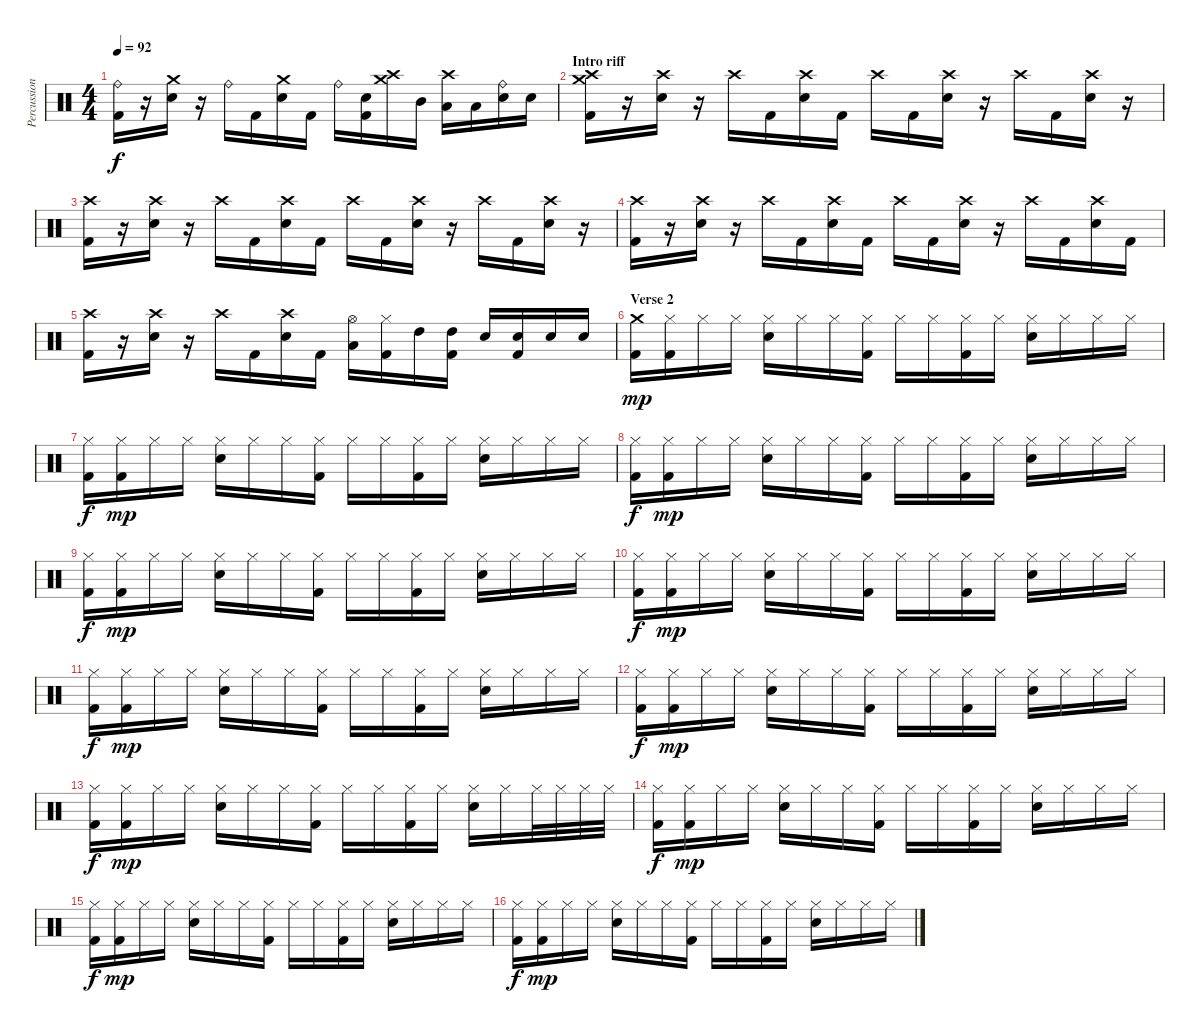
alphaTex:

\track ("Percussion" "Percussion") {instrument percussion}
\staff {score}
\articulation defaults
\ts (4 4)
\tempo 92
\clef neutral
\ks c
("Ride (bell)" "Kick (hit) 2").16{dy f} r.16 ("Crash medium (hit)" "Snare (hit) 2").16 r.16 "Ride (bell)".16 "Kick (hit) 2".16 ("Crash medium (hit)" "Snare (hit) 2").16 "Kick (hit) 2".16 "Ride (bell)".16 ("Snare (hit) 2" "Kick (hit) 2").16 ("Crash medium (hit)" "Crash high (hit)").16 "Mid Tom (hit)".16 ("Crash high (hit)" "Low Tom (hit)").16 "Low Tom (hit)".16 ("Ride (bell)" "Snare (hit) 2").16 "Snare (hit) 2".16 |
\section ("" "Intro riff")
("Crash high (hit)" "Crash medium (hit)" "Kick (hit) 2").16 r.16 ("Crash high (hit)" "Snare (hit) 2").16 r.16 "Crash high (hit)".16 "Kick (hit) 2".16 ("Crash high (hit)" "Snare (hit) 2").16 "Kick (hit) 2".16 "Crash high (hit)".16 "Kick (hit) 2".16 ("Crash high (hit)" "Snare (hit) 2").16 r.16 "Crash high (hit)".16 "Kick (hit) 2".16 ("Crash high (hit)" "Snare (hit) 2").16 r.16 |
("Crash high (hit)" "Kick (hit) 2").16 r.16 ("Crash high (hit)" "Snare (hit) 2").16 r.16 "Crash high (hit)".16 "Kick (hit) 2".16 ("Crash high (hit)" "Snare (hit) 2").16 "Kick (hit) 2".16 "Crash high (hit)".16 "Kick (hit) 2".16 ("Crash high (hit)" "Snare (hit) 2").16 r.16 "Crash high (hit)".16 "Kick (hit) 2".16 ("Crash high (hit)" "Snare (hit) 2").16 r.16 |
("Crash high (hit)" "Kick (hit) 2").16 r.16 ("Crash high (hit)" "Snare (hit) 2").16 r.16 "Crash high (hit)".16 "Kick (hit) 2".16 ("Crash high (hit)" "Snare (hit) 2").16 "Kick (hit) 2".16 "Crash high (hit)".16 "Kick (hit) 2".16 ("Crash high (hit)" "Snare (hit) 2").16 r.16 "Crash high (hit)".16 "Kick (hit) 2".16 ("Crash high (hit)" "Snare (hit) 2").16 "Kick (hit) 2".16 |
("Crash high (hit)" "Kick (hit) 2").16 r.16 ("Crash high (hit)" "Snare (hit) 2").16 r.16 "Crash high (hit)".16 "Kick (hit) 2".16 ("Crash high (hit)" "Snare (hit) 2").16 "Kick (hit) 2".16 ("Hi-Hat (open)" "Low Tom (hit)").16 ("Hi-Hat (closed)" "Kick (hit) 2").16 "High Tom (hit)".16 ("High Tom (hit)" "Kick (hit) 2").16 "Snare (hit) 2".16 ("Snare (hit) 2" "Kick (hit) 2").16 "Snare (hit) 2".16 "Snare (hit) 2".16 |
\section ("" "Verse 2")
("Crash medium (hit)" "Kick (hit) 2").16{dy mp} ("Hi-Hat (closed)" "Kick (hit) 2").16 "Hi-Hat (closed)".16 "Hi-Hat (closed)".16 ("Hi-Hat (closed)" "Snare (hit) 2").16 "Hi-Hat (closed)".16 "Hi-Hat (closed)".16 ("Hi-Hat (closed)" "Kick (hit) 2").16 "Hi-Hat (closed)".16 "Hi-Hat (closed)".16 ("Hi-Hat (closed)" "Kick (hit) 2").16 "Hi-Hat (closed)".16 ("Hi-Hat (closed)" "Snare (hit) 2").16 "Hi-Hat (closed)".16 "Hi-Hat (closed)".16 "Hi-Hat (closed)".16 |
("Hi-Hat (closed)" "Kick (hit) 2").16{dy f} ("Hi-Hat (closed)" "Kick (hit) 2").16{dy mp} "Hi-Hat (closed)".16 "Hi-Hat (closed)".16 ("Hi-Hat (closed)" "Snare (hit) 2").16 "Hi-Hat (closed)".16 "Hi-Hat (closed)".16 ("Hi-Hat (closed)" "Kick (hit) 2").16 "Hi-Hat (closed)".16 "Hi-Hat (closed)".16 ("Hi-Hat (closed)" "Kick (hit) 2").16 "Hi-Hat (closed)".16 ("Hi-Hat (closed)" "Snare (hit) 2").16 "Hi-Hat (closed)".16 "Hi-Hat (closed)".16 "Hi-Hat (closed)".16 |
("Hi-Hat (closed)" "Kick (hit) 2").16{dy f} ("Hi-Hat (closed)" "Kick (hit) 2").16{dy mp} "Hi-Hat (closed)".16 "Hi-Hat (closed)".16 ("Hi-Hat (closed)" "Snare (hit) 2").16 "Hi-Hat (closed)".16 "Hi-Hat (closed)".16 ("Hi-Hat (closed)" "Kick (hit) 2").16 "Hi-Hat (closed)".16 "Hi-Hat (closed)".16 ("Hi-Hat (closed)" "Kick (hit) 2").16 "Hi-Hat (closed)".16 ("Hi-Hat (closed)" "Snare (hit) 2").16 "Hi-Hat (closed)".16 "Hi-Hat (closed)".16 "Hi-Hat (closed)".16 |
("Hi-Hat (closed)" "Kick (hit) 2").16{dy f} ("Hi-Hat (closed)" "Kick (hit) 2").16{dy mp} "Hi-Hat (closed)".16 "Hi-Hat (closed)".16 ("Hi-Hat (closed)" "Snare (hit) 2").16 "Hi-Hat (closed)".16 "Hi-Hat (closed)".16 ("Hi-Hat (closed)" "Kick (hit) 2").16 "Hi-Hat (closed)".16 "Hi-Hat (closed)".16 ("Hi-Hat (closed)" "Kick (hit) 2").16 "Hi-Hat (closed)".16 ("Hi-Hat (closed)" "Snare (hit) 2").16 "Hi-Hat (closed)".16 "Hi-Hat (closed)".16 "Hi-Hat (closed)".16 |
("Hi-Hat (closed)" "Kick (hit) 2").16{dy f} ("Hi-Hat (closed)" "Kick (hit) 2").16{dy mp} "Hi-Hat (closed)".16 "Hi-Hat (closed)".16 ("Hi-Hat (closed)" "Snare (hit) 2").16 "Hi-Hat (closed)".16 "Hi-Hat (closed)".16 ("Hi-Hat (closed)" "Kick (hit) 2").16 "Hi-Hat (closed)".16 "Hi-Hat (closed)".16 ("Hi-Hat (closed)" "Kick (hit) 2").16 "Hi-Hat (closed)".16 ("Hi-Hat (closed)" "Snare (hit) 2").16 "Hi-Hat (closed)".16 "Hi-Hat (closed)".16 "Hi-Hat (closed)".16 |
("Hi-Hat (closed)" "Kick (hit) 2").16{dy f} ("Hi-Hat (closed)" "Kick (hit) 2").16{dy mp} "Hi-Hat (closed)".16 "Hi-Hat (closed)".16 ("Hi-Hat (closed)" "Snare (hit) 2").16 "Hi-Hat (closed)".16 "Hi-Hat (closed)".16 ("Hi-Hat (closed)" "Kick (hit) 2").16 "Hi-Hat (closed)".16 "Hi-Hat (closed)".16 ("Hi-Hat (closed)" "Kick (hit) 2").16 "Hi-Hat (closed)".16 ("Hi-Hat (closed)" "Snare (hit) 2").16 "Hi-Hat (closed)".16 "Hi-Hat (closed)".16 "Hi-Hat (closed)".16 |
("Hi-Hat (closed)" "Kick (hit) 2").16{dy f} ("Hi-Hat (closed)" "Kick (hit) 2").16{dy mp} "Hi-Hat (closed)".16 "Hi-Hat (closed)".16 ("Hi-Hat (closed)" "Snare (hit) 2").16 "Hi-Hat (closed)".16 "Hi-Hat (closed)".16 ("Hi-Hat (closed)" "Kick (hit) 2").16 "Hi-Hat (closed)".16 "Hi-Hat (closed)".16 ("Hi-Hat (closed)" "Kick (hit) 2").16 "Hi-Hat (closed)".16 ("Hi-Hat (closed)" "Snare (hit) 2").16 "Hi-Hat (closed)".16 "Hi-Hat (closed)".16 "Hi-Hat (closed)".16 |
("Hi-Hat (closed)" "Kick (hit) 2").16{dy f} ("Hi-Hat (closed)" "Kick (hit) 2").16{dy mp} "Hi-Hat (closed)".16 "Hi-Hat (closed)".16 ("Hi-Hat (closed)" "Snare (hit) 2").16 "Hi-Hat (closed)".16 "Hi-Hat (closed)".16 ("Hi-Hat (closed)" "Kick (hit) 2").16 "Hi-Hat (closed)".16 "Hi-Hat (closed)".16 ("Hi-Hat (closed)" "Kick (hit) 2").16 "Hi-Hat (closed)".16 ("Hi-Hat (closed)" "Snare (hit) 2").16 "Hi-Hat (closed)".16 "Hi-Hat (closed)".32 "Hi-Hat (closed)".32 "Hi-Hat (closed)".32 "Hi-Hat (closed)".32 |
("Hi-Hat (closed)" "Kick (hit) 2").16{dy f} ("Hi-Hat (closed)" "Kick (hit) 2").16{dy mp} "Hi-Hat (closed)".16 "Hi-Hat (closed)".16 ("Hi-Hat (closed)" "Snare (hit) 2").16 "Hi-Hat (closed)".16 "Hi-Hat (closed)".16 ("Hi-Hat (closed)" "Kick (hit) 2").16 "Hi-Hat (closed)".16 "Hi-Hat (closed)".16 ("Hi-Hat (closed)" "Kick (hit) 2").16 "Hi-Hat (closed)".16 ("Hi-Hat (closed)" "Snare (hit) 2").16 "Hi-Hat (closed)".16 "Hi-Hat (closed)".16 "Hi-Hat (closed)".16 |
("Hi-Hat (closed)" "Kick (hit) 2").16{dy f} ("Hi-Hat (closed)" "Kick (hit) 2").16{dy mp} "Hi-Hat (closed)".16 "Hi-Hat (closed)".16 ("Hi-Hat (closed)" "Snare (hit) 2").16 "Hi-Hat (closed)".16 "Hi-Hat (closed)".16 ("Hi-Hat (closed)" "Kick (hit) 2").16 "Hi-Hat (closed)".16 "Hi-Hat (closed)".16 ("Hi-Hat (closed)" "Kick (hit) 2").16 "Hi-Hat (closed)".16 ("Hi-Hat (closed)" "Snare (hit) 2").16 "Hi-Hat (closed)".16 "Hi-Hat (closed)".16 "Hi-Hat (closed)".16 |
("Hi-Hat (closed)" "Kick (hit) 2").16{dy f} ("Hi-Hat (closed)" "Kick (hit) 2").16{dy mp} "Hi-Hat (closed)".16 "Hi-Hat (closed)".16 ("Hi-Hat (closed)" "Snare (hit) 2").16 "Hi-Hat (closed)".16 "Hi-Hat (closed)".16 ("Hi-Hat (closed)" "Kick (hit) 2").16 "Hi-Hat (closed)".16 "Hi-Hat (closed)".16 ("Hi-Hat (closed)" "Kick (hit) 2").16 "Hi-Hat (closed)".16 ("Hi-Hat (closed)" "Snare (hit) 2").16 "Hi-Hat (closed)".16 "Hi-Hat (closed)".16 "Hi-Hat (closed)".16
